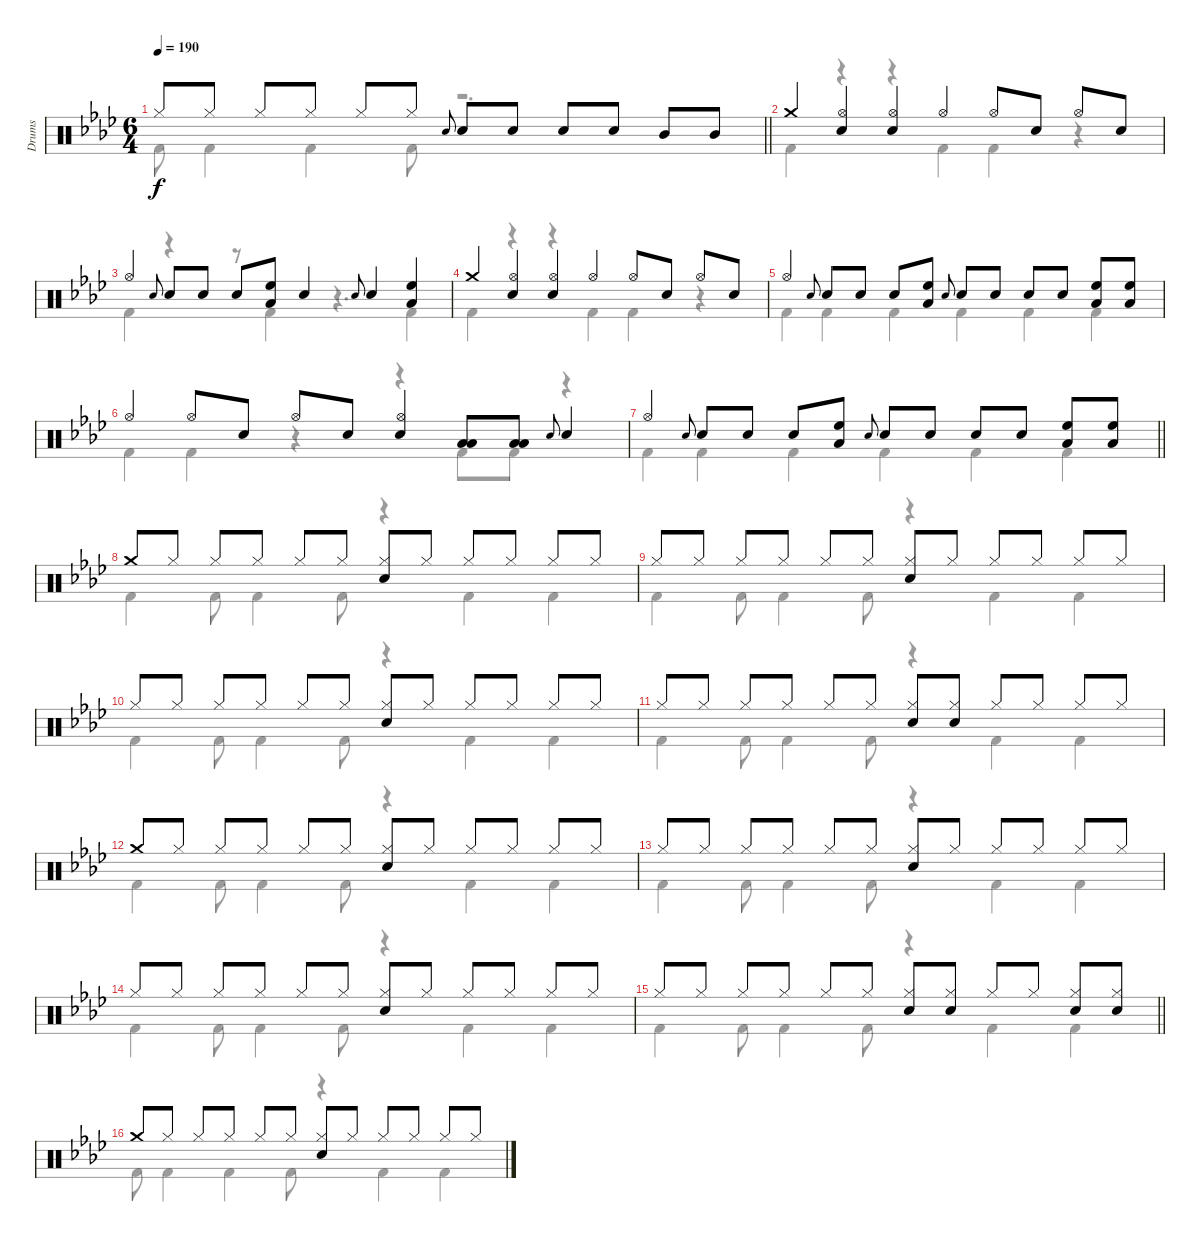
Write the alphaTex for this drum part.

\track ("Drums" "Drums") {instrument percussion}
\staff {score}
\articulation defaults
\voice
\ts (6 4)
\tempo 190
\clef neutral
\barLineRight lightlight
\ks fminor "Hi-Hat (closed)".8{dy f} "Hi-Hat (closed)".8 "Hi-Hat (closed)".8 "Hi-Hat (closed)".8 "Hi-Hat (closed)".8 "Hi-Hat (closed)".8 "Snare (hit) 2".8{gr onbeat} "Snare (hit) 2".8 "Snare (hit) 2".8 "Snare (hit) 2".8 "Snare (hit) 2".8 "Mid Tom (hit)".8 "Mid Tom (hit)".8
|
"Crash medium (hit)".4 ("Hi-Hat (open)" "Snare (hit) 2").4 ("Hi-Hat (open)" "Snare (hit) 2").4 "Hi-Hat (open)".4 "Hi-Hat (open)".8 "Snare (hit) 2".8 "Hi-Hat (open)".8 "Snare (hit) 2".8 |
"Hi-Hat (open)".4 "Snare (hit) 2".8{gr onbeat} "Snare (hit) 2".8 "Snare (hit) 2".8 "Snare (hit) 2".8 ("Low Tom (hit)" "High Floor Tom (hit)").8 "Snare (hit) 2".4 "Snare (hit) 2".8{gr onbeat} "Snare (hit) 2".4 ("Low Tom (hit)" "High Floor Tom (hit)").4 |
"Crash medium (hit)".4 ("Hi-Hat (open)" "Snare (hit) 2").4 ("Hi-Hat (open)" "Snare (hit) 2").4 "Hi-Hat (open)".4 "Hi-Hat (open)".8 "Snare (hit) 2".8 "Hi-Hat (open)".8 "Snare (hit) 2".8 |
"Hi-Hat (open)".4 "Snare (hit) 2".8{gr onbeat} "Snare (hit) 2".8 "Snare (hit) 2".8 "Snare (hit) 2".8 ("Low Tom (hit)" "High Floor Tom (hit)").8 "Snare (hit) 2".8{gr onbeat} "Snare (hit) 2".8 "Snare (hit) 2".8 "Snare (hit) 2".8 "Snare (hit) 2".8 ("Low Tom (hit)" "High Floor Tom (hit)").8 ("Low Tom (hit)" "High Floor Tom (hit)").8 |
"Hi-Hat (open)".4 "Hi-Hat (open)".8 "Snare (hit) 2".8 "Hi-Hat (open)".8 "Snare (hit) 2".8 ("Hi-Hat (open)" "Snare (hit) 2").4 ("Low Tom (hit)" "Low Floor Tom (hit)").8 ("Low Tom (hit)" "Low Floor Tom (hit)").8 "Snare (hit) 2".8{gr onbeat} "Snare (hit) 2".4 |
\barLineRight lightlight "Hi-Hat (open)".4 "Snare (hit) 2".8{gr onbeat} "Snare (hit) 2".8 "Snare (hit) 2".8 "Snare (hit) 2".8
("Low Tom (hit)" "High Floor Tom (hit)").8 "Snare (hit) 2".8{gr onbeat} "Snare (hit) 2".8 "Snare (hit) 2".8 "Snare (hit) 2".8 "Snare (hit) 2".8 ("Low Tom (hit)" "High Floor Tom (hit)").8 ("Low Tom (hit)" "High Floor Tom (hit)").8 |
"Crash medium (hit)".8 "Hi-Hat (closed)".8 "Hi-Hat (closed)".8 "Hi-Hat (closed)".8 "Hi-Hat (closed)".8 "Hi-Hat (closed)".8 ("Hi-Hat (closed)" "Snare (hit) 2").8 "Hi-Hat (closed)".8 "Hi-Hat (closed)".8 "Hi-Hat (closed)".8 "Hi-Hat (closed)".8 "Hi-Hat (closed)".8 |
"Hi-Hat (closed)".8 "Hi-Hat (closed)".8 "Hi-Hat (closed)".8 "Hi-Hat (closed)".8 "Hi-Hat (closed)".8 "Hi-Hat (closed)".8 ("Hi-Hat (closed)" "Snare (hit) 2").8 "Hi-Hat (closed)".8 "Hi-Hat (closed)".8 "Hi-Hat (closed)".8 "Hi-Hat (closed)".8 "Hi-Hat (closed)".8 |
"Hi-Hat (closed)".8 "Hi-Hat (closed)".8 "Hi-Hat (closed)".8 "Hi-Hat (closed)".8 "Hi-Hat (closed)".8 "Hi-Hat (closed)".8 ("Hi-Hat (closed)" "Snare (hit) 2").8 "Hi-Hat (closed)".8 "Hi-Hat (closed)".8 "Hi-Hat (closed)".8 "Hi-Hat (closed)".8 "Hi-Hat (closed)".8 |
"Hi-Hat (closed)".8 "Hi-Hat (closed)".8 "Hi-Hat (closed)".8 "Hi-Hat (closed)".8 "Hi-Hat (closed)".8 "Hi-Hat (closed)".8 ("Hi-Hat (closed)" "Snare (hit) 2").8 ("Hi-Hat (closed)" "Snare (hit) 2").8 "Hi-Hat (closed)".8 "Hi-Hat (closed)".8 "Hi-Hat (closed)".8 "Hi-Hat (closed)".8 |
"Crash medium (hit)".8 "Hi-Hat (closed)".8 "Hi-Hat (closed)".8 "Hi-Hat (closed)".8 "Hi-Hat (closed)".8 "Hi-Hat (closed)".8 ("Hi-Hat (closed)" "Snare (hit) 2").8 "Hi-Hat (closed)".8 "Hi-Hat (closed)".8 "Hi-Hat (closed)".8 "Hi-Hat (closed)".8 "Hi-Hat (closed)".8 |
"Hi-Hat (closed)".8 "Hi-Hat (closed)".8 "Hi-Hat (closed)".8 "Hi-Hat (closed)".8 "Hi-Hat (closed)".8 "Hi-Hat (closed)".8 ("Hi-Hat (closed)" "Snare (hit) 2").8 "Hi-Hat (closed)".8 "Hi-Hat (closed)".8 "Hi-Hat (closed)".8 "Hi-Hat (closed)".8 "Hi-Hat (closed)".8 |
"Hi-Hat (closed)".8 "Hi-Hat (closed)".8 "Hi-Hat (closed)".8 "Hi-Hat (closed)".8 "Hi-Hat (closed)".8 "Hi-Hat (closed)".8 ("Hi-Hat (closed)" "Snare (hit) 2").8 "Hi-Hat (closed)".8 "Hi-Hat (closed)".8 "Hi-Hat (closed)".8 "Hi-Hat (closed)".8 "Hi-Hat (closed)".8 |
\barLineRight lightlight "Hi-Hat (closed)".8 "Hi-Hat (closed)".8 "Hi-Hat (closed)".8 "Hi-Hat (closed)".8 "Hi-Hat (closed)".8 "Hi-Hat (closed)".8
("Hi-Hat (closed)" "Snare (hit) 2").8 ("Hi-Hat (closed)" "Snare (hit) 2").8 "Hi-Hat (closed)".8 "Hi-Hat (closed)".8 ("Hi-Hat (closed)" "Snare (hit) 2").8 ("Hi-Hat (closed)" "Snare (hit) 2").8 |
"Crash medium (hit)".8 "Hi-Hat (closed)".8 "Hi-Hat (closed)".8 "Hi-Hat (closed)".8 "Hi-Hat (closed)".8 "Hi-Hat (closed)".8 ("Hi-Hat (closed)" "Snare (hit) 2").8 "Hi-Hat (closed)".8 "Hi-Hat (closed)".8 "Hi-Hat (closed)".8 "Hi-Hat (closed)".8 "Hi-Hat (closed)".8
\voice
\clef neutral
\ottava regular
\simile none
\barLineRight lightlight
\ks fminor "Kick (hit) 2".8{dy f} "Kick (hit) 2".4 "Kick (hit) 2".4 "Kick (hit) 2".8
r.2{d} |
"Kick (hit) 2".4 r.4 r.4 "Kick (hit) 2".4 "Kick (hit) 2".4 r.4 |
"Kick (hit) 2".4 r.4 r.8 "Kick (hit) 2".4 r.4{d} "Kick (hit) 2".4 |
"Kick (hit) 2".4 r.4 r.4 "Kick (hit) 2".4 "Kick (hit) 2".4 r.4 |
"Kick (hit) 2".4 "Kick (hit) 2".4 "Kick (hit) 2".4 "Kick (hit) 2".4 "Kick (hit) 2".4 "Kick (hit) 2".4 |
"Kick (hit) 2".4 "Kick (hit) 2".4 r.4 r.4 "Kick (hit) 2".8 "Kick (hit) 2".8 r.4 |
\barLineRight lightlight "Kick (hit) 2".4 "Kick (hit) 2".4 "Kick (hit) 2".4 "Kick (hit) 2".4 "Kick (hit) 2".4 "Kick (hit) 2".4
|
"Kick (hit) 2".4 "Kick (hit) 2".8 "Kick (hit) 2".4 "Kick (hit) 2".8 r.4 "Kick (hit) 2".4 "Kick (hit) 2".4 |
"Kick (hit) 2".4 "Kick (hit) 2".8 "Kick (hit) 2".4 "Kick (hit) 2".8 r.4 "Kick (hit) 2".4 "Kick (hit) 2".4 |
"Kick (hit) 2".4 "Kick (hit) 2".8 "Kick (hit) 2".4 "Kick (hit) 2".8 r.4 "Kick (hit) 2".4 "Kick (hit) 2".4 |
"Kick (hit) 2".4 "Kick (hit) 2".8 "Kick (hit) 2".4 "Kick (hit) 2".8 r.4 "Kick (hit) 2".4 "Kick (hit) 2".4 |
"Kick (hit) 2".4 "Kick (hit) 2".8 "Kick (hit) 2".4 "Kick (hit) 2".8 r.4 "Kick (hit) 2".4 "Kick (hit) 2".4 |
"Kick (hit) 2".4 "Kick (hit) 2".8 "Kick (hit) 2".4 "Kick (hit) 2".8 r.4 "Kick (hit) 2".4 "Kick (hit) 2".4 |
"Kick (hit) 2".4 "Kick (hit) 2".8 "Kick (hit) 2".4 "Kick (hit) 2".8 r.4 "Kick (hit) 2".4 "Kick (hit) 2".4 |
\barLineRight lightlight "Kick (hit) 2".4 "Kick (hit) 2".8 "Kick (hit) 2".4 "Kick (hit) 2".8
r.4 "Kick (hit) 2".4 "Kick (hit) 2".4 |
"Kick (hit) 2".8 "Kick (hit) 2".4 "Kick (hit) 2".4 "Kick (hit) 2".8 r.4 "Kick (hit) 2".4 "Kick (hit) 2".4
